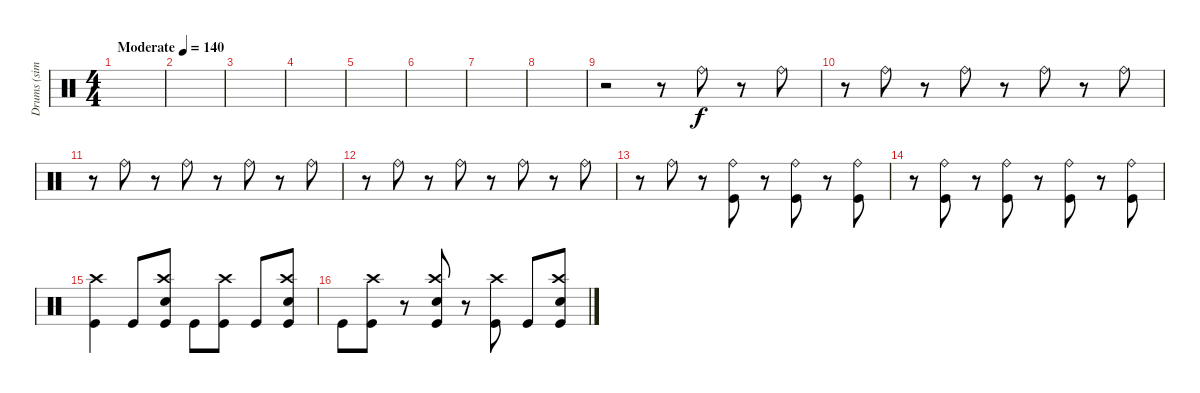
\track ("Drums (simple)" "Drums (sim") {instrument percussion}
\staff {score}
\articulation defaults
\ts (4 4)
\tempo (140 "Moderate")
\clef neutral
\ks c
|
|
|
|
|
|
|
|
r.2{volume 7} r.8 "Ride (bell)".8 r.8 "Ride (bell)".8 |
r.8 "Ride (bell)".8 r.8 "Ride (bell)".8 r.8 "Ride (bell)".8 r.8 "Ride (bell)".8 |
r.8 "Ride (bell)".8 r.8 "Ride (bell)".8 r.8 "Ride (bell)".8 r.8 "Ride (bell)".8 |
r.8 "Ride (bell)".8 r.8 "Ride (bell)".8 r.8 "Ride (bell)".8 r.8 "Ride (bell)".8 |
r.8 "Ride (bell)".8 r.8 ("Ride (bell)" "Kick (hit)").8 r.8 ("Ride (bell)" "Kick (hit)").8 r.8 ("Ride (bell)" "Kick (hit)").8 |
r.8 ("Ride (bell)" "Kick (hit)").8 r.8 ("Ride (bell)" "Kick (hit)").8 r.8 ("Ride (bell)" "Kick (hit)").8 r.8 ("Ride (bell)" "Kick (hit)").8 |
("Crash high (hit)" "Kick (hit)").4{volume 12} "Kick (hit)".8 ("Crash high (hit)" "Snare (hit) 2" "Kick (hit)").8 "Kick (hit)".8 ("Crash high (hit)" "Kick (hit)").8 "Kick (hit)".8 ("Crash high (hit)" "Snare (hit) 2" "Kick (hit)").8 |
"Kick (hit)".8 ("Crash high (hit)" "Kick (hit)").8 r.8 ("Crash high (hit)" "Snare (hit) 2" "Kick (hit)").8 r.8 ("Crash high (hit)" "Kick (hit)").8 "Kick (hit)".8 ("Crash high (hit)" "Snare (hit) 2" "Kick (hit)").8
